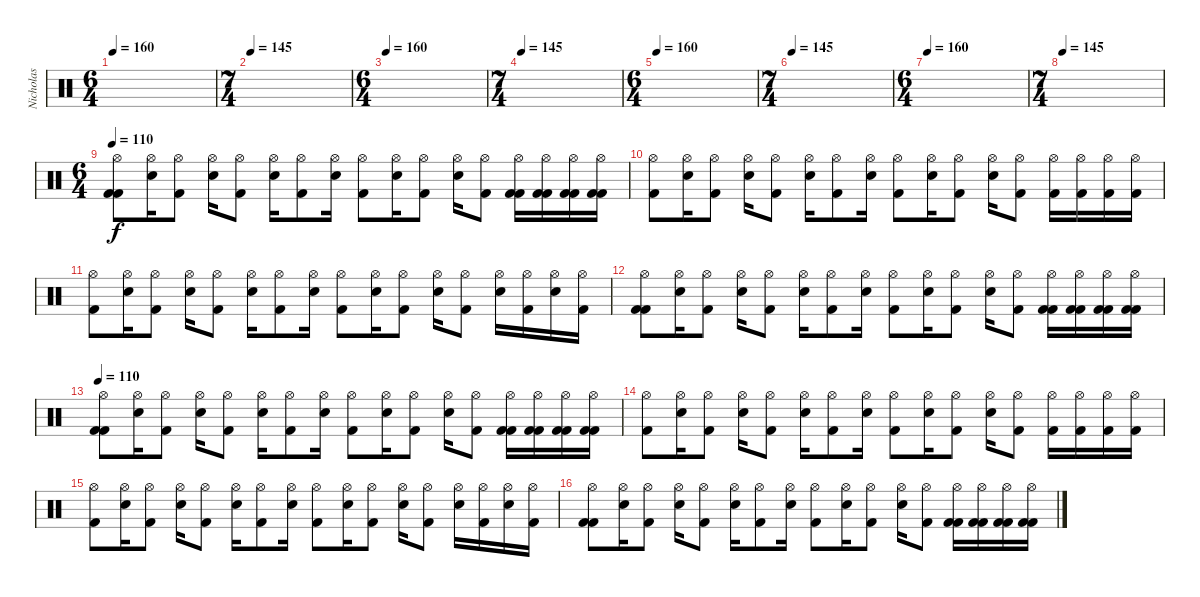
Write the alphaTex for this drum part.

\track ("Nicholas" "Nicholas") {instrument percussion}
\staff {score}
\articulation defaults
\ts (6 4)
\tempo 160
\clef neutral
\ks c
|
\ts (7 4)
\tempo 145
|
\ts (6 4)
\tempo 160
|
\ts (7 4)
\tempo 145
|
\ts (6 4)
\tempo 160
|
\ts (7 4)
\tempo 145
|
\ts (6 4)
\tempo 160
|
\ts (7 4)
\tempo 145
|
\ts (6 4)
\tempo 110
("Hi-Hat (open)" "Kick (hit) 2" "Kick (hit) 2").8 ("Hi-Hat (open)" "Snare (hit) 2").16 ("Hi-Hat (open)" "Kick (hit) 2").8 ("Hi-Hat (open)" "Snare (hit) 2").16 ("Hi-Hat (open)" "Kick (hit) 2").8 ("Hi-Hat (open)" "Snare (hit) 2").16 ("Hi-Hat (open)" "Kick (hit) 2").8 ("Hi-Hat (open)" "Snare (hit) 2").16 ("Hi-Hat (open)" "Kick (hit) 2").8 ("Hi-Hat (open)" "Snare (hit) 2").16 ("Hi-Hat (open)" "Kick (hit) 2").8 ("Hi-Hat (open)" "Snare (hit) 2").16 ("Hi-Hat (open)" "Kick (hit) 2").8 ("Hi-Hat (open)" "Kick (hit) 2" "Kick (hit) 2").16 ("Hi-Hat (open)" "Kick (hit) 2" "Kick (hit) 2").16 ("Hi-Hat (open)" "Kick (hit) 2" "Kick (hit) 2").16 ("Hi-Hat (open)" "Kick (hit) 2" "Kick (hit) 2").16 |
("Hi-Hat (open)" "Kick (hit) 2").8 ("Hi-Hat (open)" "Snare (hit) 2").16 ("Hi-Hat (open)" "Kick (hit) 2").8 ("Hi-Hat (open)" "Snare (hit) 2").16 ("Hi-Hat (open)" "Kick (hit) 2").8 ("Hi-Hat (open)" "Snare (hit) 2").16 ("Hi-Hat (open)" "Kick (hit) 2").8 ("Hi-Hat (open)" "Snare (hit) 2").16 ("Hi-Hat (open)" "Kick (hit) 2").8 ("Hi-Hat (open)" "Snare (hit) 2").16 ("Hi-Hat (open)" "Kick (hit) 2").8 ("Hi-Hat (open)" "Snare (hit) 2").16 ("Hi-Hat (open)" "Kick (hit) 2").8 ("Hi-Hat (open)" "Kick (hit) 2").16 ("Hi-Hat (open)" "Kick (hit) 2").16 ("Hi-Hat (open)" "Kick (hit) 2").16 ("Hi-Hat (open)" "Kick (hit) 2").16 |
("Hi-Hat (open)" "Kick (hit) 2").8 ("Hi-Hat (open)" "Snare (hit) 2").16 ("Hi-Hat (open)" "Kick (hit) 2").8 ("Hi-Hat (open)" "Snare (hit) 2").16 ("Hi-Hat (open)" "Kick (hit) 2").8 ("Hi-Hat (open)" "Snare (hit) 2").16 ("Hi-Hat (open)" "Kick (hit) 2").8 ("Hi-Hat (open)" "Snare (hit) 2").16 ("Hi-Hat (open)" "Kick (hit) 2").8 ("Hi-Hat (open)" "Snare (hit) 2").16 ("Hi-Hat (open)" "Kick (hit) 2").8 ("Hi-Hat (open)" "Snare (hit) 2").16 ("Hi-Hat (open)" "Kick (hit) 2").8 ("Hi-Hat (open)" "Snare (hit) 2").16 ("Hi-Hat (open)" "Kick (hit) 2").16 ("Hi-Hat (open)" "Snare (hit) 2").16 ("Hi-Hat (open)" "Kick (hit) 2").16 |
("Hi-Hat (open)" "Kick (hit) 2" "Kick (hit) 2").8 ("Hi-Hat (open)" "Snare (hit) 2").16 ("Hi-Hat (open)" "Kick (hit) 2").8 ("Hi-Hat (open)" "Snare (hit) 2").16 ("Hi-Hat (open)" "Kick (hit) 2").8 ("Hi-Hat (open)" "Snare (hit) 2").16 ("Hi-Hat (open)" "Kick (hit) 2").8 ("Hi-Hat (open)" "Snare (hit) 2").16 ("Hi-Hat (open)" "Kick (hit) 2").8 ("Hi-Hat (open)" "Snare (hit) 2").16 ("Hi-Hat (open)" "Kick (hit) 2").8 ("Hi-Hat (open)" "Snare (hit) 2").16 ("Hi-Hat (open)" "Kick (hit) 2").8 ("Hi-Hat (open)" "Kick (hit) 2" "Kick (hit) 2").16 ("Hi-Hat (open)" "Kick (hit) 2" "Kick (hit) 2").16 ("Hi-Hat (open)" "Kick (hit) 2" "Kick (hit) 2").16 ("Hi-Hat (open)" "Kick (hit) 2" "Kick (hit) 2").16 |
\tempo 110
("Hi-Hat (open)" "Kick (hit) 2" "Kick (hit) 2").8 ("Hi-Hat (open)" "Snare (hit) 2").16 ("Hi-Hat (open)" "Kick (hit) 2").8 ("Hi-Hat (open)" "Snare (hit) 2").16 ("Hi-Hat (open)" "Kick (hit) 2").8 ("Hi-Hat (open)" "Snare (hit) 2").16 ("Hi-Hat (open)" "Kick (hit) 2").8 ("Hi-Hat (open)" "Snare (hit) 2").16 ("Hi-Hat (open)" "Kick (hit) 2").8 ("Hi-Hat (open)" "Snare (hit) 2").16 ("Hi-Hat (open)" "Kick (hit) 2").8 ("Hi-Hat (open)" "Snare (hit) 2").16 ("Hi-Hat (open)" "Kick (hit) 2").8 ("Hi-Hat (open)" "Kick (hit) 2" "Kick (hit) 2").16 ("Hi-Hat (open)" "Kick (hit) 2" "Kick (hit) 2").16 ("Hi-Hat (open)" "Kick (hit) 2" "Kick (hit) 2").16 ("Hi-Hat (open)" "Kick (hit) 2" "Kick (hit) 2").16 |
("Hi-Hat (open)" "Kick (hit) 2").8 ("Hi-Hat (open)" "Snare (hit) 2").16 ("Hi-Hat (open)" "Kick (hit) 2").8 ("Hi-Hat (open)" "Snare (hit) 2").16 ("Hi-Hat (open)" "Kick (hit) 2").8 ("Hi-Hat (open)" "Snare (hit) 2").16 ("Hi-Hat (open)" "Kick (hit) 2").8 ("Hi-Hat (open)" "Snare (hit) 2").16 ("Hi-Hat (open)" "Kick (hit) 2").8 ("Hi-Hat (open)" "Snare (hit) 2").16 ("Hi-Hat (open)" "Kick (hit) 2").8 ("Hi-Hat (open)" "Snare (hit) 2").16 ("Hi-Hat (open)" "Kick (hit) 2").8 ("Hi-Hat (open)" "Kick (hit) 2").16 ("Hi-Hat (open)" "Kick (hit) 2").16 ("Hi-Hat (open)" "Kick (hit) 2").16 ("Hi-Hat (open)" "Kick (hit) 2").16 |
("Hi-Hat (open)" "Kick (hit) 2").8 ("Hi-Hat (open)" "Snare (hit) 2").16 ("Hi-Hat (open)" "Kick (hit) 2").8 ("Hi-Hat (open)" "Snare (hit) 2").16 ("Hi-Hat (open)" "Kick (hit) 2").8 ("Hi-Hat (open)" "Snare (hit) 2").16 ("Hi-Hat (open)" "Kick (hit) 2").8 ("Hi-Hat (open)" "Snare (hit) 2").16 ("Hi-Hat (open)" "Kick (hit) 2").8 ("Hi-Hat (open)" "Snare (hit) 2").16 ("Hi-Hat (open)" "Kick (hit) 2").8 ("Hi-Hat (open)" "Snare (hit) 2").16 ("Hi-Hat (open)" "Kick (hit) 2").8 ("Hi-Hat (open)" "Snare (hit) 2").16 ("Hi-Hat (open)" "Kick (hit) 2").16 ("Hi-Hat (open)" "Snare (hit) 2").16 ("Hi-Hat (open)" "Kick (hit) 2").16 |
("Hi-Hat (open)" "Kick (hit) 2" "Kick (hit) 2").8 ("Hi-Hat (open)" "Snare (hit) 2").16 ("Hi-Hat (open)" "Kick (hit) 2").8 ("Hi-Hat (open)" "Snare (hit) 2").16 ("Hi-Hat (open)" "Kick (hit) 2").8 ("Hi-Hat (open)" "Snare (hit) 2").16 ("Hi-Hat (open)" "Kick (hit) 2").8 ("Hi-Hat (open)" "Snare (hit) 2").16 ("Hi-Hat (open)" "Kick (hit) 2").8 ("Hi-Hat (open)" "Snare (hit) 2").16 ("Hi-Hat (open)" "Kick (hit) 2").8 ("Hi-Hat (open)" "Snare (hit) 2").16 ("Hi-Hat (open)" "Kick (hit) 2").8 ("Hi-Hat (open)" "Kick (hit) 2" "Kick (hit) 2").16 ("Hi-Hat (open)" "Kick (hit) 2" "Kick (hit) 2").16 ("Hi-Hat (open)" "Kick (hit) 2" "Kick (hit) 2").16 ("Hi-Hat (open)" "Kick (hit) 2" "Kick (hit) 2").16
